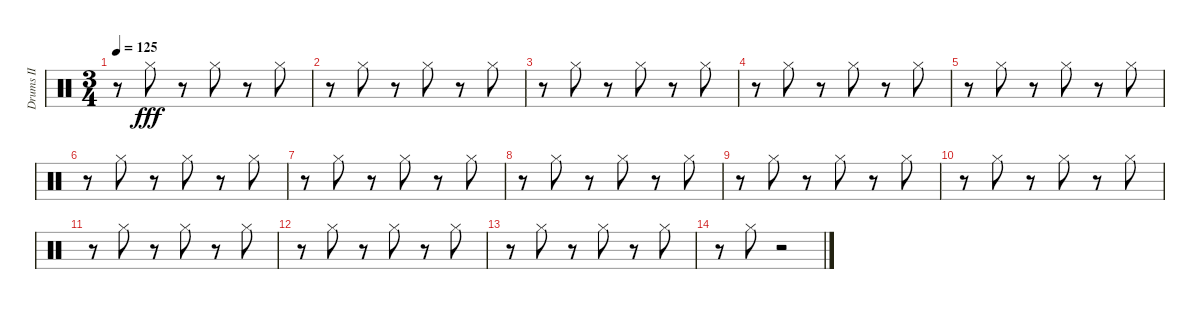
\track ("Drums II" "Drums II") {instrument percussion}
\staff {score}
\articulation defaults
\ts (3 4)
\tempo 125
\clef neutral
\ks c
r.8{dy fff} "Hi-Hat (closed)".8 r.8 "Hi-Hat (closed)".8 r.8 "Hi-Hat (closed)".8 |
r.8 "Hi-Hat (closed)".8 r.8 "Hi-Hat (closed)".8 r.8 "Hi-Hat (closed)".8 |
r.8 "Hi-Hat (closed)".8 r.8 "Hi-Hat (closed)".8 r.8 "Hi-Hat (closed)".8 |
r.8 "Hi-Hat (closed)".8 r.8 "Hi-Hat (closed)".8 r.8 "Hi-Hat (closed)".8 |
r.8 "Hi-Hat (closed)".8 r.8 "Hi-Hat (closed)".8 r.8 "Hi-Hat (closed)".8 |
r.8 "Hi-Hat (closed)".8 r.8 "Hi-Hat (closed)".8 r.8 "Hi-Hat (closed)".8 |
r.8 "Hi-Hat (closed)".8 r.8 "Hi-Hat (closed)".8 r.8 "Hi-Hat (closed)".8 |
r.8 "Hi-Hat (closed)".8 r.8 "Hi-Hat (closed)".8 r.8 "Hi-Hat (closed)".8 |
r.8 "Hi-Hat (closed)".8 r.8 "Hi-Hat (closed)".8 r.8 "Hi-Hat (closed)".8 |
r.8 "Hi-Hat (closed)".8 r.8 "Hi-Hat (closed)".8 r.8 "Hi-Hat (closed)".8 |
r.8 "Hi-Hat (closed)".8 r.8 "Hi-Hat (closed)".8 r.8 "Hi-Hat (closed)".8 |
r.8 "Hi-Hat (closed)".8 r.8 "Hi-Hat (closed)".8 r.8 "Hi-Hat (closed)".8 |
r.8 "Hi-Hat (closed)".8 r.8 "Hi-Hat (closed)".8 r.8 "Hi-Hat (closed)".8 |
r.8 "Hi-Hat (closed)".8 r.2
